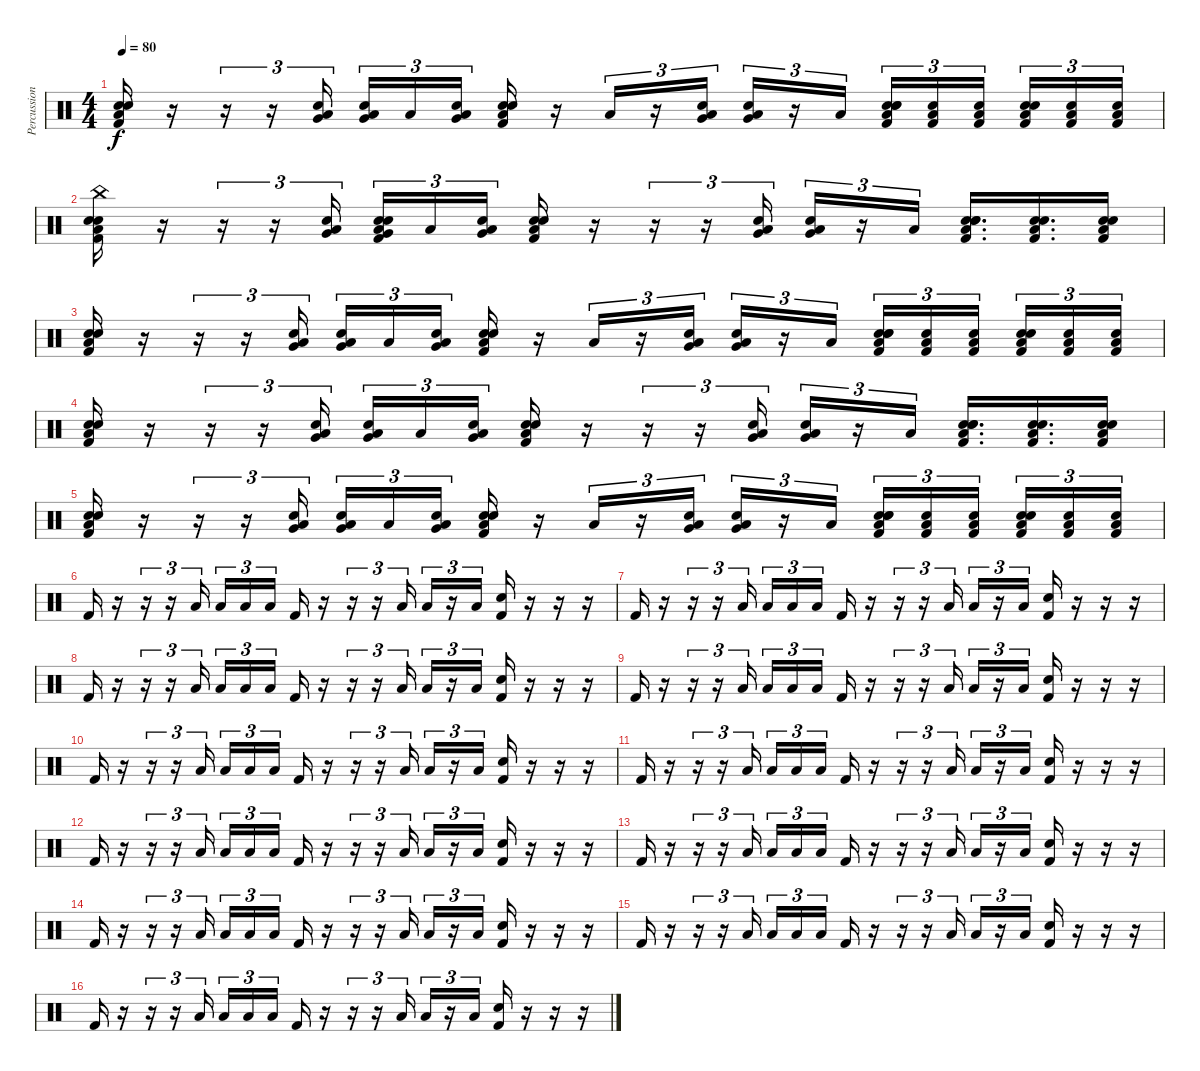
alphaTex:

\track ("Percussion" "Percussion") {instrument percussion}
\staff {score}
\articulation defaults
\ts (4 4)
\tempo 80
\clef neutral
\ks c
("Snare (hit) 2" "Electric Snare (hit)" "Low Floor Tom (hit)" "Kick (hit) 2").16{dy f} r.16 r.16{tu (3 2)} r.16{tu (3 2)} ("Electric Snare (hit)" "Very Low Tom (hit)" "Low Floor Tom (hit)").16{tu (3 2) bd 60} ("Electric Snare (hit)" "Very Low Tom (hit)" "Low Floor Tom (hit)").16{tu (3 2) bu 60} "Low Floor Tom (hit)".16{tu (3 2) bd 60} ("Electric Snare (hit)" "Very Low Tom (hit)" "Low Floor Tom (hit)").16{tu (3 2) bu 60 beam splitsecondary} ("Snare (hit) 2" "Electric Snare (hit)" "Low Floor Tom (hit)" "Kick (hit) 2").16 r.16 "Low Floor Tom (hit)".16{tu (3 2)} r.16{tu (3 2)} ("Electric Snare (hit)" "Very Low Tom (hit)" "Low Floor Tom (hit)").16{tu (3 2) bd 60} ("Electric Snare (hit)" "Very Low Tom (hit)" "Low Floor Tom (hit)").16{tu (3 2) bu 60} r.16{tu (3 2)} "Low Floor Tom (hit)".16{tu (3 2) bu 60} ("Snare (hit) 2" "Electric Snare (hit)" "Low Floor Tom (hit)" "Hand Clap (hit)" "Kick (hit) 2").16{tu (3 2)} ("Electric Snare (hit)" "Low Floor Tom (hit)" "Kick (hit) 2").16{tu (3 2)} ("Electric Snare (hit)" "Low Floor Tom (hit)" "Kick (hit) 2").16{tu (3 2) beam splitsecondary} ("Snare (hit) 2" "Electric Snare (hit)" "Low Floor Tom (hit)" "Kick (hit) 2").16{tu (3 2)} ("Electric Snare (hit)" "Low Floor Tom (hit)" "Kick (hit) 2").16{tu (3 2)} ("Electric Snare (hit)" "Low Floor Tom (hit)" "Kick (hit) 2").16{tu (3 2)} |
("China (hit)" "Snare (hit) 2" "Electric Snare (hit)" "Low Floor Tom (hit)" "Kick (hit) 2").16 r.16 r.16{tu (3 2)} r.16{tu (3 2)} ("Electric Snare (hit)" "Very Low Tom (hit)" "Low Floor Tom (hit)").16{tu (3 2) bd 60} ("Snare (hit) 2" "Electric Snare (hit)" "Very Low Tom (hit)" "Low Floor Tom (hit)" "Kick (hit) 2").16{tu (3 2) bu 60} "Low Floor Tom (hit)".16{tu (3 2) bd 60} ("Electric Snare (hit)" "Very Low Tom (hit)" "Low Floor Tom (hit)").16{tu (3 2) bu 60 beam splitsecondary} ("Snare (hit) 2" "Electric Snare (hit)" "Low Floor Tom (hit)" "Kick (hit) 2").16 r.16 r.16{tu (3 2)} r.16{tu (3 2)} ("Electric Snare (hit)" "Very Low Tom (hit)" "Low Floor Tom (hit)").16{tu (3 2) bd 60} ("Electric Snare (hit)" "Very Low Tom (hit)" "Low Floor Tom (hit)").16{tu (3 2) bu 60} r.16{tu (3 2)} "Low Floor Tom (hit)".16{tu (3 2) bu 60} ("Snare (hit) 2" "Electric Snare (hit)" "Low Floor Tom (hit)" "Hand Clap (hit)" "Kick (hit) 2").16{d} ("Snare (hit) 2" "Electric Snare (hit)" "Low Floor Tom (hit)" "Kick (hit) 2").16{d} ("Snare (hit) 2" "Electric Snare (hit)" "Low Floor Tom (hit)" "Kick (hit) 2").16 |
("Snare (hit) 2" "Electric Snare (hit)" "Low Floor Tom (hit)" "Kick (hit) 2").16 r.16 r.16{tu (3 2)} r.16{tu (3 2)} ("Electric Snare (hit)" "Very Low Tom (hit)" "Low Floor Tom (hit)").16{tu (3 2) bd 60} ("Electric Snare (hit)" "Very Low Tom (hit)" "Low Floor Tom (hit)").16{tu (3 2) bu 60} "Low Floor Tom (hit)".16{tu (3 2) bd 60} ("Electric Snare (hit)" "Very Low Tom (hit)" "Low Floor Tom (hit)").16{tu (3 2) bu 60 beam splitsecondary} ("Snare (hit) 2" "Electric Snare (hit)" "Low Floor Tom (hit)" "Kick (hit) 2").16 r.16 "Low Floor Tom (hit)".16{tu (3 2)} r.16{tu (3 2)} ("Electric Snare (hit)" "Very Low Tom (hit)" "Low Floor Tom (hit)").16{tu (3 2) bd 60} ("Electric Snare (hit)" "Very Low Tom (hit)" "Low Floor Tom (hit)").16{tu (3 2) bu 60} r.16{tu (3 2)} "Low Floor Tom (hit)".16{tu (3 2) bu 60} ("Snare (hit) 2" "Electric Snare (hit)" "Low Floor Tom (hit)" "Hand Clap (hit)" "Kick (hit) 2").16{tu (3 2)} ("Electric Snare (hit)" "Low Floor Tom (hit)" "Kick (hit) 2").16{tu (3 2)} ("Electric Snare (hit)" "Low Floor Tom (hit)" "Kick (hit) 2").16{tu (3 2) beam splitsecondary} ("Snare (hit) 2" "Electric Snare (hit)" "Low Floor Tom (hit)" "Kick (hit) 2").16{tu (3 2)} ("Electric Snare (hit)" "Low Floor Tom (hit)" "Kick (hit) 2").16{tu (3 2)} ("Electric Snare (hit)" "Low Floor Tom (hit)" "Kick (hit) 2").16{tu (3 2)} |
("Snare (hit) 2" "Electric Snare (hit)" "Low Floor Tom (hit)" "Kick (hit) 2").16 r.16 r.16{tu (3 2)} r.16{tu (3 2)} ("Electric Snare (hit)" "Very Low Tom (hit)" "Low Floor Tom (hit)").16{tu (3 2) bd 60} ("Electric Snare (hit)" "Very Low Tom (hit)" "Low Floor Tom (hit)").16{tu (3 2) bu 60} "Low Floor Tom (hit)".16{tu (3 2) bd 60} ("Electric Snare (hit)" "Very Low Tom (hit)" "Low Floor Tom (hit)").16{tu (3 2) bu 60 beam splitsecondary} ("Snare (hit) 2" "Electric Snare (hit)" "Low Floor Tom (hit)" "Kick (hit) 2").16 r.16 r.16{tu (3 2)} r.16{tu (3 2)} ("Electric Snare (hit)" "Very Low Tom (hit)" "Low Floor Tom (hit)").16{tu (3 2) bd 60} ("Electric Snare (hit)" "Very Low Tom (hit)" "Low Floor Tom (hit)").16{tu (3 2) bu 60} r.16{tu (3 2)} "Low Floor Tom (hit)".16{tu (3 2) bu 60} ("Snare (hit) 2" "Electric Snare (hit)" "Low Floor Tom (hit)" "Hand Clap (hit)" "Kick (hit) 2").16{d} ("Snare (hit) 2" "Electric Snare (hit)" "Low Floor Tom (hit)" "Kick (hit) 2").16{d} ("Snare (hit) 2" "Electric Snare (hit)" "Low Floor Tom (hit)" "Kick (hit) 2").16 |
("Snare (hit) 2" "Electric Snare (hit)" "Low Floor Tom (hit)" "Kick (hit) 2").16 r.16 r.16{tu (3 2)} r.16{tu (3 2)} ("Electric Snare (hit)" "Very Low Tom (hit)" "Low Floor Tom (hit)").16{tu (3 2) bd 60} ("Electric Snare (hit)" "Very Low Tom (hit)" "Low Floor Tom (hit)").16{tu (3 2) bu 60} "Low Floor Tom (hit)".16{tu (3 2) bd 60} ("Electric Snare (hit)" "Very Low Tom (hit)" "Low Floor Tom (hit)").16{tu (3 2) bu 60 beam splitsecondary} ("Snare (hit) 2" "Electric Snare (hit)" "Low Floor Tom (hit)" "Kick (hit) 2").16 r.16 "Low Floor Tom (hit)".16{tu (3 2)} r.16{tu (3 2)} ("Electric Snare (hit)" "Very Low Tom (hit)" "Low Floor Tom (hit)").16{tu (3 2) bd 60} ("Electric Snare (hit)" "Very Low Tom (hit)" "Low Floor Tom (hit)").16{tu (3 2) bu 60} r.16{tu (3 2)} "Low Floor Tom (hit)".16{tu (3 2) bu 60} ("Snare (hit) 2" "Electric Snare (hit)" "Low Floor Tom (hit)" "Hand Clap (hit)" "Kick (hit) 2").16{tu (3 2)} ("Electric Snare (hit)" "Low Floor Tom (hit)" "Kick (hit) 2").16{tu (3 2)} ("Electric Snare (hit)" "Low Floor Tom (hit)" "Kick (hit) 2").16{tu (3 2) beam splitsecondary} ("Snare (hit) 2" "Electric Snare (hit)" "Low Floor Tom (hit)" "Kick (hit) 2").16{tu (3 2)} ("Electric Snare (hit)" "Low Floor Tom (hit)" "Kick (hit) 2").16{tu (3 2)} ("Electric Snare (hit)" "Low Floor Tom (hit)" "Kick (hit) 2").16{tu (3 2)} |
"Kick (hit) 2".16 r.16 r.16{tu (3 2)} r.16{tu (3 2)} "Low Floor Tom (hit)".16{tu (3 2) bd 60} "Low Floor Tom (hit)".16{tu (3 2) bu 60} "Low Floor Tom (hit)".16{tu (3 2) bd 60} "Low Floor Tom (hit)".16{tu (3 2) bu 60 beam splitsecondary} "Kick (hit) 2".16 r.16 r.16{tu (3 2)} r.16{tu (3 2)} "Low Floor Tom (hit)".16{tu (3 2) bd 60} "Low Floor Tom (hit)".16{tu (3 2) bu 60} r.16{tu (3 2)} "Low Floor Tom (hit)".16{tu (3 2) bu 60} ("Hand Clap (hit)" "Kick (hit) 2").16 r.16 r.16 r.16 |
"Kick (hit) 2".16 r.16 r.16{tu (3 2)} r.16{tu (3 2)} "Low Floor Tom (hit)".16{tu (3 2) bd 60} "Low Floor Tom (hit)".16{tu (3 2) bu 60} "Low Floor Tom (hit)".16{tu (3 2) bd 60} "Low Floor Tom (hit)".16{tu (3 2) bu 60 beam splitsecondary} "Kick (hit) 2".16 r.16 r.16{tu (3 2)} r.16{tu (3 2)} "Low Floor Tom (hit)".16{tu (3 2) bd 60} "Low Floor Tom (hit)".16{tu (3 2) bu 60} r.16{tu (3 2)} "Low Floor Tom (hit)".16{tu (3 2) bu 60} ("Hand Clap (hit)" "Kick (hit) 2").16 r.16 r.16 r.16 |
"Kick (hit) 2".16 r.16 r.16{tu (3 2)} r.16{tu (3 2)} "Low Floor Tom (hit)".16{tu (3 2) bd 60} "Low Floor Tom (hit)".16{tu (3 2) bu 60} "Low Floor Tom (hit)".16{tu (3 2) bd 60} "Low Floor Tom (hit)".16{tu (3 2) bu 60 beam splitsecondary} "Kick (hit) 2".16 r.16 r.16{tu (3 2)} r.16{tu (3 2)} "Low Floor Tom (hit)".16{tu (3 2) bd 60} "Low Floor Tom (hit)".16{tu (3 2) bu 60} r.16{tu (3 2)} "Low Floor Tom (hit)".16{tu (3 2) bu 60} ("Hand Clap (hit)" "Kick (hit) 2").16 r.16 r.16 r.16 |
"Kick (hit) 2".16 r.16 r.16{tu (3 2)} r.16{tu (3 2)} "Low Floor Tom (hit)".16{tu (3 2) bd 60} "Low Floor Tom (hit)".16{tu (3 2) bu 60} "Low Floor Tom (hit)".16{tu (3 2) bd 60} "Low Floor Tom (hit)".16{tu (3 2) bu 60 beam splitsecondary} "Kick (hit) 2".16 r.16 r.16{tu (3 2)} r.16{tu (3 2)} "Low Floor Tom (hit)".16{tu (3 2) bd 60} "Low Floor Tom (hit)".16{tu (3 2) bu 60} r.16{tu (3 2)} "Low Floor Tom (hit)".16{tu (3 2) bu 60} ("Hand Clap (hit)" "Kick (hit) 2").16 r.16 r.16 r.16 |
"Kick (hit) 2".16 r.16 r.16{tu (3 2)} r.16{tu (3 2)} "Low Floor Tom (hit)".16{tu (3 2) bd 60} "Low Floor Tom (hit)".16{tu (3 2) bu 60} "Low Floor Tom (hit)".16{tu (3 2) bd 60} "Low Floor Tom (hit)".16{tu (3 2) bu 60 beam splitsecondary} "Kick (hit) 2".16 r.16 r.16{tu (3 2)} r.16{tu (3 2)} "Low Floor Tom (hit)".16{tu (3 2) bd 60} "Low Floor Tom (hit)".16{tu (3 2) bu 60} r.16{tu (3 2)} "Low Floor Tom (hit)".16{tu (3 2) bu 60} ("Hand Clap (hit)" "Kick (hit) 2").16 r.16 r.16 r.16 |
"Kick (hit) 2".16 r.16 r.16{tu (3 2)} r.16{tu (3 2)} "Low Floor Tom (hit)".16{tu (3 2) bd 60} "Low Floor Tom (hit)".16{tu (3 2) bu 60} "Low Floor Tom (hit)".16{tu (3 2) bd 60} "Low Floor Tom (hit)".16{tu (3 2) bu 60 beam splitsecondary} "Kick (hit) 2".16 r.16 r.16{tu (3 2)} r.16{tu (3 2)} "Low Floor Tom (hit)".16{tu (3 2) bd 60} "Low Floor Tom (hit)".16{tu (3 2) bu 60} r.16{tu (3 2)} "Low Floor Tom (hit)".16{tu (3 2) bu 60} ("Hand Clap (hit)" "Kick (hit) 2").16 r.16 r.16 r.16 |
"Kick (hit) 2".16{volume 0} r.16 r.16{tu (3 2)} r.16{tu (3 2)} "Low Floor Tom (hit)".16{tu (3 2) bd 60} "Low Floor Tom (hit)".16{tu (3 2) bu 60} "Low Floor Tom (hit)".16{tu (3 2) bd 60} "Low Floor Tom (hit)".16{tu (3 2) bu 60 beam splitsecondary} "Kick (hit) 2".16 r.16 r.16{tu (3 2)} r.16{tu (3 2)} "Low Floor Tom (hit)".16{tu (3 2) bd 60} "Low Floor Tom (hit)".16{tu (3 2) bu 60} r.16{tu (3 2)} "Low Floor Tom (hit)".16{tu (3 2) bu 60} ("Hand Clap (hit)" "Kick (hit) 2").16 r.16 r.16 r.16 |
"Kick (hit) 2".16 r.16 r.16{tu (3 2)} r.16{tu (3 2)} "Low Floor Tom (hit)".16{tu (3 2) bd 60} "Low Floor Tom (hit)".16{tu (3 2) bu 60} "Low Floor Tom (hit)".16{tu (3 2) bd 60} "Low Floor Tom (hit)".16{tu (3 2) bu 60 beam splitsecondary} "Kick (hit) 2".16 r.16 r.16{tu (3 2)} r.16{tu (3 2)} "Low Floor Tom (hit)".16{tu (3 2) bd 60} "Low Floor Tom (hit)".16{tu (3 2) bu 60} r.16{tu (3 2)} "Low Floor Tom (hit)".16{tu (3 2) bu 60} ("Hand Clap (hit)" "Kick (hit) 2").16 r.16 r.16 r.16 |
"Kick (hit) 2".16 r.16 r.16{tu (3 2)} r.16{tu (3 2)} "Low Floor Tom (hit)".16{tu (3 2) bd 60} "Low Floor Tom (hit)".16{tu (3 2) bu 60} "Low Floor Tom (hit)".16{tu (3 2) bd 60} "Low Floor Tom (hit)".16{tu (3 2) bu 60 beam splitsecondary} "Kick (hit) 2".16 r.16 r.16{tu (3 2)} r.16{tu (3 2)} "Low Floor Tom (hit)".16{tu (3 2) bd 60} "Low Floor Tom (hit)".16{tu (3 2) bu 60} r.16{tu (3 2)} "Low Floor Tom (hit)".16{tu (3 2) bu 60} ("Hand Clap (hit)" "Kick (hit) 2").16 r.16 r.16 r.16 |
"Kick (hit) 2".16 r.16 r.16{tu (3 2)} r.16{tu (3 2)} "Low Floor Tom (hit)".16{tu (3 2) bd 60} "Low Floor Tom (hit)".16{tu (3 2) bu 60} "Low Floor Tom (hit)".16{tu (3 2) bd 60} "Low Floor Tom (hit)".16{tu (3 2) bu 60 beam splitsecondary} "Kick (hit) 2".16 r.16 r.16{tu (3 2)} r.16{tu (3 2)} "Low Floor Tom (hit)".16{tu (3 2) bd 60} "Low Floor Tom (hit)".16{tu (3 2) bu 60} r.16{tu (3 2)} "Low Floor Tom (hit)".16{tu (3 2) bu 60} ("Hand Clap (hit)" "Kick (hit) 2").16 r.16 r.16 r.16 |
"Kick (hit) 2".16 r.16 r.16{tu (3 2)} r.16{tu (3 2)} "Low Floor Tom (hit)".16{tu (3 2) bd 60} "Low Floor Tom (hit)".16{tu (3 2) bu 60} "Low Floor Tom (hit)".16{tu (3 2) bd 60} "Low Floor Tom (hit)".16{tu (3 2) bu 60 beam splitsecondary} "Kick (hit) 2".16 r.16 r.16{tu (3 2)} r.16{tu (3 2)} "Low Floor Tom (hit)".16{tu (3 2) bd 60} "Low Floor Tom (hit)".16{tu (3 2) bu 60} r.16{tu (3 2)} "Low Floor Tom (hit)".16{tu (3 2) bu 60} ("Hand Clap (hit)" "Kick (hit) 2").16 r.16 r.16 r.16
